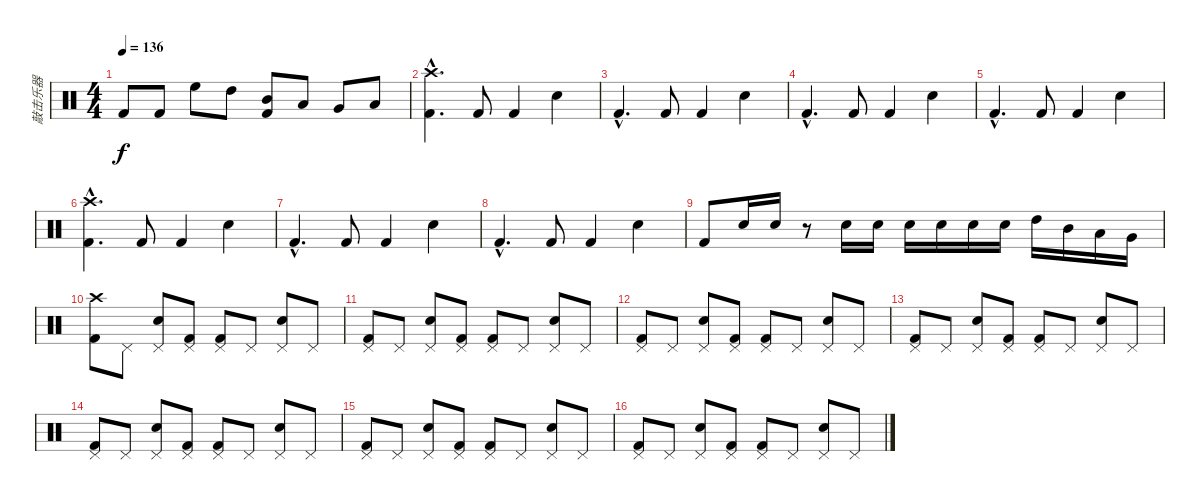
\track ("敲击乐器" "敲击乐器") {instrument percussion}
\staff {score}
\articulation defaults
\ts (4 4)
\tempo 136
\clef neutral
\ks c "Kick (hit) 2".8{dy f} "Kick (hit) 2".8 "High Floor Tom (hit)".8 "High Tom (hit)".8
("Mid Tom (hit)" "Kick (hit) 2").8 "Low Tom (hit)".8 "Very Low Tom (hit)".8 "Low Floor Tom (hit)".8 |
("Crash high (hit)"{hac} "Kick (hit) 2"{hac}).4{d} "Kick (hit) 2".8 "Kick (hit) 2".4 "Snare (hit) 2".4 |
"Kick (hit) 2"{hac}.4{d} "Kick (hit) 2".8 "Kick (hit) 2".4 "Snare (hit) 2".4 |
"Kick (hit) 2"{hac}.4{d} "Kick (hit) 2".8 "Kick (hit) 2".4 "Snare (hit) 2".4 |
"Kick (hit) 2"{hac}.4{d} "Kick (hit) 2".8 "Kick (hit) 2".4 "Snare (hit) 2".4 |
("Crash high (hit)"{hac} "Kick (hit) 2"{hac}).4{d} "Kick (hit) 2".8 "Kick (hit) 2".4 "Snare (hit) 2".4 |
"Kick (hit) 2"{hac}.4{d} "Kick (hit) 2".8 "Kick (hit) 2".4 "Snare (hit) 2".4 |
"Kick (hit) 2"{hac}.4{d} "Kick (hit) 2".8 "Kick (hit) 2".4 "Snare (hit) 2".4 |
"Kick (hit) 2".8 "Snare (hit) 2".16 "Snare (hit) 2".16 r.8 "Snare (hit) 2".16 "Snare (hit) 2".16 "Snare (hit) 2".16 "Snare (hit) 2".16 "Snare (hit) 2".16 "Snare (hit) 2".16 "High Tom (hit)".16 "Mid Tom (hit)".16 "Low Tom (hit)".16 "Very Low Tom (hit)".16 |
("Crash high (hit)" "Kick (hit) 2").8 "Pedal Hi-Hat (hit)".8 ("Pedal Hi-Hat (hit)" "Snare (hit) 2").8 ("Pedal Hi-Hat (hit)" "Kick (hit) 2").8 ("Pedal Hi-Hat (hit)" "Kick (hit) 2").8 "Pedal Hi-Hat (hit)".8 ("Pedal Hi-Hat (hit)" "Snare (hit) 2").8 "Pedal Hi-Hat (hit)".8 |
("Pedal Hi-Hat (hit)" "Kick (hit) 2").8 "Pedal Hi-Hat (hit)".8 ("Pedal Hi-Hat (hit)" "Snare (hit) 2").8 ("Pedal Hi-Hat (hit)" "Kick (hit) 2").8 ("Pedal Hi-Hat (hit)" "Kick (hit) 2").8 "Pedal Hi-Hat (hit)".8 ("Pedal Hi-Hat (hit)" "Snare (hit) 2").8 "Pedal Hi-Hat (hit)".8 |
("Pedal Hi-Hat (hit)" "Kick (hit) 2").8 "Pedal Hi-Hat (hit)".8 ("Pedal Hi-Hat (hit)" "Snare (hit) 2").8 ("Pedal Hi-Hat (hit)" "Kick (hit) 2").8 ("Pedal Hi-Hat (hit)" "Kick (hit) 2").8 "Pedal Hi-Hat (hit)".8 ("Pedal Hi-Hat (hit)" "Snare (hit) 2").8 "Pedal Hi-Hat (hit)".8 |
("Pedal Hi-Hat (hit)" "Kick (hit) 2").8 "Pedal Hi-Hat (hit)".8 ("Pedal Hi-Hat (hit)" "Snare (hit) 2").8 ("Pedal Hi-Hat (hit)" "Kick (hit) 2").8 ("Pedal Hi-Hat (hit)" "Kick (hit) 2").8 "Pedal Hi-Hat (hit)".8 ("Pedal Hi-Hat (hit)" "Snare (hit) 2").8 "Pedal Hi-Hat (hit)".8 |
("Pedal Hi-Hat (hit)" "Kick (hit) 2").8 "Pedal Hi-Hat (hit)".8 ("Pedal Hi-Hat (hit)" "Snare (hit) 2").8 ("Pedal Hi-Hat (hit)" "Kick (hit) 2").8 ("Pedal Hi-Hat (hit)" "Kick (hit) 2").8 "Pedal Hi-Hat (hit)".8 ("Pedal Hi-Hat (hit)" "Snare (hit) 2").8 "Pedal Hi-Hat (hit)".8 |
("Pedal Hi-Hat (hit)" "Kick (hit) 2").8 "Pedal Hi-Hat (hit)".8 ("Pedal Hi-Hat (hit)" "Snare (hit) 2").8 ("Pedal Hi-Hat (hit)" "Kick (hit) 2").8 ("Pedal Hi-Hat (hit)" "Kick (hit) 2").8 "Pedal Hi-Hat (hit)".8 ("Pedal Hi-Hat (hit)" "Snare (hit) 2").8 "Pedal Hi-Hat (hit)".8 |
("Pedal Hi-Hat (hit)" "Kick (hit) 2").8 "Pedal Hi-Hat (hit)".8 ("Pedal Hi-Hat (hit)" "Snare (hit) 2").8 ("Pedal Hi-Hat (hit)" "Kick (hit) 2").8 ("Pedal Hi-Hat (hit)" "Kick (hit) 2").8 "Pedal Hi-Hat (hit)".8 ("Pedal Hi-Hat (hit)" "Snare (hit) 2").8 "Pedal Hi-Hat (hit)".8
